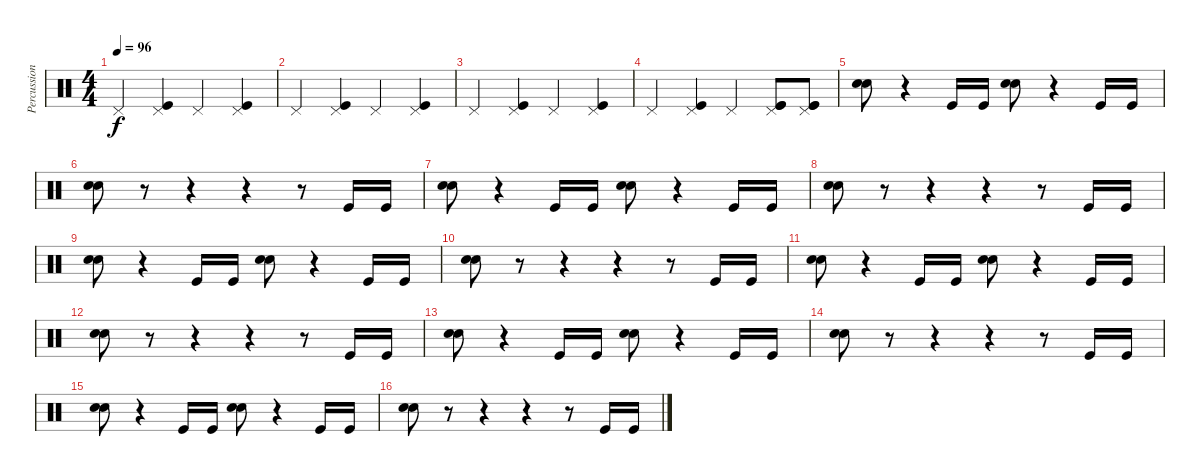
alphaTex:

\track ("Percussion (Rico)" "Percussion") {instrument percussion}
\staff {score}
\articulation defaults
\ts (4 4)
\tempo 96
\clef neutral
\ks c "Pedal Hi-Hat (hit)".4{dy f}
("Pedal Hi-Hat (hit)" "Kick (hit)").4 "Pedal Hi-Hat (hit)".4 ("Pedal Hi-Hat (hit)" "Kick (hit)").4 |
"Pedal Hi-Hat (hit)".4 ("Pedal Hi-Hat (hit)" "Kick (hit)").4 "Pedal Hi-Hat (hit)".4 ("Pedal Hi-Hat (hit)" "Kick (hit)").4 |
"Pedal Hi-Hat (hit)".4 ("Pedal Hi-Hat (hit)" "Kick (hit)").4 "Pedal Hi-Hat (hit)".4 ("Pedal Hi-Hat (hit)" "Kick (hit)").4 |
"Pedal Hi-Hat (hit)".4 ("Pedal Hi-Hat (hit)" "Kick (hit)").4 "Pedal Hi-Hat (hit)".4 ("Pedal Hi-Hat (hit)" "Kick (hit)" "Kick (hit)").8 ("Pedal Hi-Hat (hit)" "Kick (hit)" "Kick (hit)").8 |
("Electric Snare (hit)" "Electric Snare (hit)").8 r.4 "Kick (hit)".16 "Kick (hit)".16 ("Electric Snare (hit)" "Electric Snare (hit)").8 r.4 "Kick (hit)".16 "Kick (hit)".16 |
("Electric Snare (hit)" "Electric Snare (hit)").8 r.8 r.4 r.4 r.8 "Kick (hit)".16 "Kick (hit)".16 |
("Electric Snare (hit)" "Electric Snare (hit)").8 r.4 "Kick (hit)".16 "Kick (hit)".16 ("Electric Snare (hit)" "Electric Snare (hit)").8 r.4 "Kick (hit)".16 "Kick (hit)".16 |
("Electric Snare (hit)" "Electric Snare (hit)").8 r.8 r.4 r.4 r.8 "Kick (hit)".16 "Kick (hit)".16 |
("Electric Snare (hit)" "Electric Snare (hit)").8 r.4 "Kick (hit)".16 "Kick (hit)".16 ("Electric Snare (hit)" "Electric Snare (hit)").8 r.4 "Kick (hit)".16 "Kick (hit)".16 |
("Electric Snare (hit)" "Electric Snare (hit)").8 r.8 r.4 r.4 r.8 "Kick (hit)".16 "Kick (hit)".16 |
("Electric Snare (hit)" "Electric Snare (hit)").8 r.4 "Kick (hit)".16 "Kick (hit)".16 ("Electric Snare (hit)" "Electric Snare (hit)").8 r.4 "Kick (hit)".16 "Kick (hit)".16 |
("Electric Snare (hit)" "Electric Snare (hit)").8 r.8 r.4 r.4 r.8 "Kick (hit)".16 "Kick (hit)".16 |
("Electric Snare (hit)" "Electric Snare (hit)").8 r.4 "Kick (hit)".16 "Kick (hit)".16 ("Electric Snare (hit)" "Electric Snare (hit)").8 r.4 "Kick (hit)".16 "Kick (hit)".16 |
("Electric Snare (hit)" "Electric Snare (hit)").8 r.8 r.4 r.4 r.8 "Kick (hit)".16 "Kick (hit)".16 |
("Electric Snare (hit)" "Electric Snare (hit)").8 r.4 "Kick (hit)".16 "Kick (hit)".16 ("Electric Snare (hit)" "Electric Snare (hit)").8 r.4 "Kick (hit)".16 "Kick (hit)".16 |
("Electric Snare (hit)" "Electric Snare (hit)").8 r.8 r.4 r.4 r.8 "Kick (hit)".16 "Kick (hit)".16
